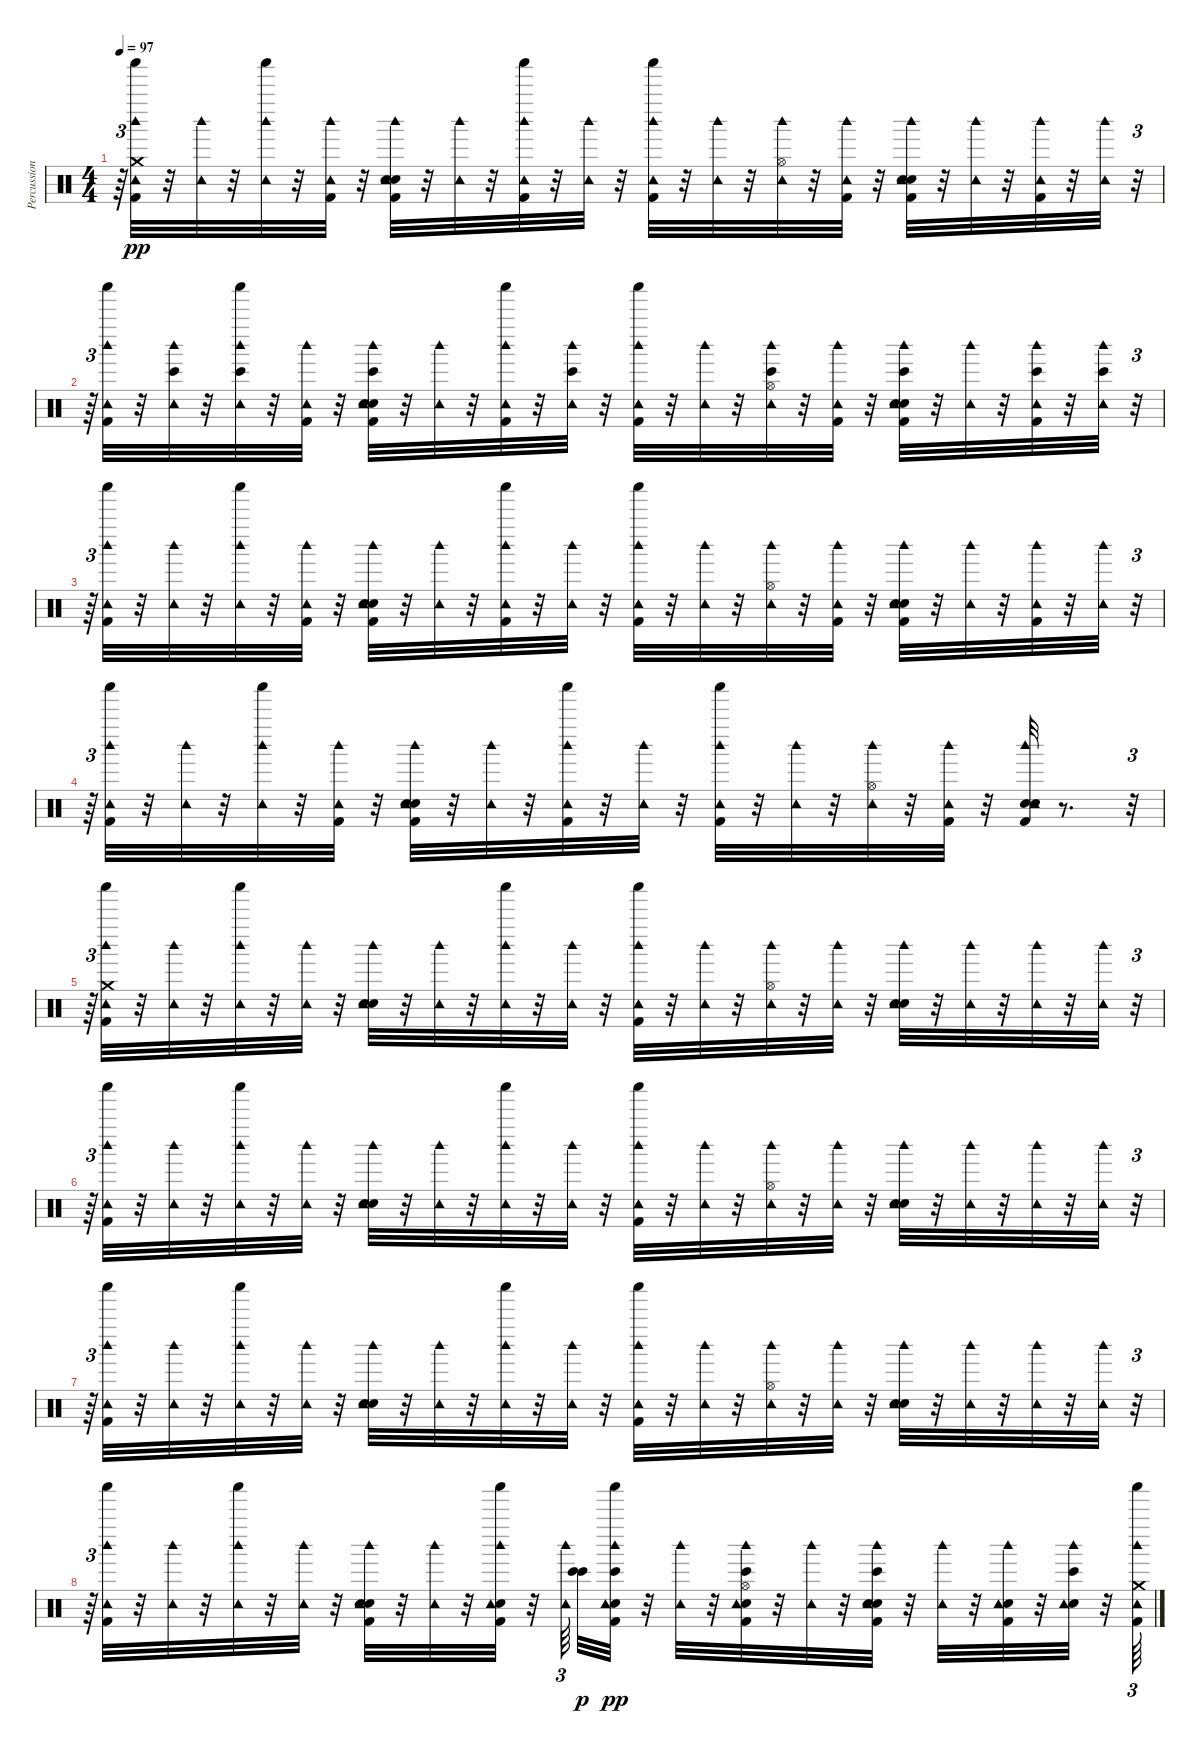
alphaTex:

\track ("Percussion" "Percussion") {instrument percussion}
\staff {score}
\articulation defaults
\ts (4 4)
\tempo 97
\clef neutral
\ks c
r.64{tu (3 2) dy pp} ("Kick (hit) 2" "Tambourine (hit)" "Crash medium (hit)" "Shaker (hit)" "Woodblock high (hit)").32 r.32 ("Tambourine (hit)" "Woodblock high (hit)").32 r.32 ("Tambourine (hit)" "Shaker (hit)" "Woodblock high (hit)").32 r.32 ("Kick (hit) 2" "Tambourine (hit)" "Woodblock high (hit)").32 r.32 ("Kick (hit) 2" "Snare (hit) 2" "Hand Clap (hit)" "Tambourine (hit)" "Woodblock high (hit)").32 r.32 ("Tambourine (hit)" "Woodblock high (hit)").32 r.32 ("Kick (hit) 2" "Tambourine (hit)" "Shaker (hit)" "Woodblock high (hit)").32 r.32 ("Tambourine (hit)" "Woodblock high (hit)").32 r.32 ("Kick (hit) 2" "Tambourine (hit)" "Shaker (hit)" "Woodblock high (hit)").32 r.32 ("Tambourine (hit)" "Woodblock high (hit)").32 r.32 ("Hi-Hat (open)" "Tambourine (hit)" "Woodblock high (hit)").32 r.32 ("Kick (hit) 2" "Tambourine (hit)" "Woodblock high (hit)").32 r.32 ("Kick (hit) 2" "Snare (hit) 2" "Hand Clap (hit)" "Tambourine (hit)" "Woodblock high (hit)").32 r.32 ("Tambourine (hit)" "Woodblock high (hit)").32 r.32 ("Kick (hit) 2" "Tambourine (hit)" "Woodblock high (hit)").32 r.32 ("Tambourine (hit)" "Woodblock high (hit)").32 r.32{tu (3 2)} |
r.64{tu (3 2)} ("Kick (hit) 2" "Tambourine (hit)" "Shaker (hit)" "Woodblock high (hit)").32 r.32 ("Tambourine (hit)" "Bongo High (hit)" "Woodblock high (hit)").32 r.32 ("Tambourine (hit)" "Bongo High (hit)" "Shaker (hit)" "Woodblock high (hit)").32 r.32 ("Kick (hit) 2" "Tambourine (hit)" "Woodblock high (hit)").32 r.32 ("Kick (hit) 2" "Snare (hit) 2" "Hand Clap (hit)" "Tambourine (hit)" "Bongo High (hit)" "Woodblock high (hit)").32 r.32 ("Tambourine (hit)" "Woodblock high (hit)").32 r.32 ("Kick (hit) 2" "Tambourine (hit)" "Shaker (hit)" "Woodblock high (hit)").32 r.32 ("Tambourine (hit)" "Bongo High (hit)" "Woodblock high (hit)").32 r.32 ("Kick (hit) 2" "Tambourine (hit)" "Shaker (hit)" "Woodblock high (hit)").32 r.32 ("Tambourine (hit)" "Woodblock high (hit)").32 r.32 ("Hi-Hat (open)" "Tambourine (hit)" "Bongo High (hit)" "Woodblock high (hit)").32 r.32 ("Kick (hit) 2" "Tambourine (hit)" "Woodblock high (hit)").32 r.32 ("Kick (hit) 2" "Snare (hit) 2" "Hand Clap (hit)" "Tambourine (hit)" "Bongo High (hit)" "Woodblock high (hit)").32 r.32 ("Tambourine (hit)" "Woodblock high (hit)").32 r.32 ("Kick (hit) 2" "Tambourine (hit)" "Bongo High (hit)" "Woodblock high (hit)").32 r.32 ("Tambourine (hit)" "Bongo High (hit)" "Woodblock high (hit)").32 r.32{tu (3 2)} |
r.64{tu (3 2)} ("Kick (hit) 2" "Tambourine (hit)" "Shaker (hit)" "Woodblock high (hit)").32 r.32 ("Tambourine (hit)" "Woodblock high (hit)").32 r.32 ("Tambourine (hit)" "Shaker (hit)" "Woodblock high (hit)").32 r.32 ("Kick (hit) 2" "Tambourine (hit)" "Woodblock high (hit)").32 r.32 ("Kick (hit) 2" "Snare (hit) 2" "Hand Clap (hit)" "Tambourine (hit)" "Woodblock high (hit)").32 r.32 ("Tambourine (hit)" "Woodblock high (hit)").32 r.32 ("Kick (hit) 2" "Tambourine (hit)" "Shaker (hit)" "Woodblock high (hit)").32 r.32 ("Tambourine (hit)" "Woodblock high (hit)").32 r.32 ("Kick (hit) 2" "Tambourine (hit)" "Shaker (hit)" "Woodblock high (hit)").32 r.32 ("Tambourine (hit)" "Woodblock high (hit)").32 r.32 ("Hi-Hat (open)" "Tambourine (hit)" "Woodblock high (hit)").32 r.32 ("Kick (hit) 2" "Tambourine (hit)" "Woodblock high (hit)").32 r.32 ("Kick (hit) 2" "Snare (hit) 2" "Hand Clap (hit)" "Tambourine (hit)" "Woodblock high (hit)").32 r.32 ("Tambourine (hit)" "Woodblock high (hit)").32 r.32 ("Kick (hit) 2" "Tambourine (hit)" "Woodblock high (hit)").32 r.32 ("Tambourine (hit)" "Woodblock high (hit)").32 r.32{tu (3 2)} |
r.64{tu (3 2)} ("Kick (hit) 2" "Tambourine (hit)" "Shaker (hit)" "Woodblock high (hit)").32 r.32 ("Tambourine (hit)" "Woodblock high (hit)").32 r.32 ("Tambourine (hit)" "Shaker (hit)" "Woodblock high (hit)").32 r.32 ("Kick (hit) 2" "Tambourine (hit)" "Woodblock high (hit)").32 r.32 ("Kick (hit) 2" "Snare (hit) 2" "Hand Clap (hit)" "Tambourine (hit)" "Woodblock high (hit)").32 r.32 ("Tambourine (hit)" "Woodblock high (hit)").32 r.32 ("Kick (hit) 2" "Tambourine (hit)" "Shaker (hit)" "Woodblock high (hit)").32 r.32 ("Tambourine (hit)" "Woodblock high (hit)").32 r.32 ("Kick (hit) 2" "Tambourine (hit)" "Shaker (hit)" "Woodblock high (hit)").32 r.32 ("Tambourine (hit)" "Woodblock high (hit)").32 r.32 ("Hi-Hat (open)" "Tambourine (hit)" "Woodblock high (hit)").32 r.32 ("Kick (hit) 2" "Tambourine (hit)" "Woodblock high (hit)").32 r.32 ("Kick (hit) 2" "Snare (hit) 2" "Hand Clap (hit)" "Tambourine (hit)" "Woodblock high (hit)").32 r.8{d} r.32{tu (3 2)} |
r.64{tu (3 2)} ("Kick (hit) 2" "Tambourine (hit)" "Crash medium (hit)" "Shaker (hit)" "Woodblock high (hit)").32 r.32 ("Tambourine (hit)" "Woodblock high (hit)").32 r.32 ("Tambourine (hit)" "Shaker (hit)" "Woodblock high (hit)").32 r.32 ("Tambourine (hit)" "Woodblock high (hit)").32 r.32 ("Snare (hit) 2" "Hand Clap (hit)" "Tambourine (hit)" "Woodblock high (hit)").32 r.32 ("Tambourine (hit)" "Woodblock high (hit)").32 r.32 ("Tambourine (hit)" "Shaker (hit)" "Woodblock high (hit)").32 r.32 ("Tambourine (hit)" "Woodblock high (hit)").32 r.32 ("Kick (hit) 2" "Tambourine (hit)" "Shaker (hit)" "Woodblock high (hit)").32 r.32 ("Tambourine (hit)" "Woodblock high (hit)").32 r.32 ("Hi-Hat (open)" "Tambourine (hit)" "Woodblock high (hit)").32 r.32 ("Tambourine (hit)" "Woodblock high (hit)").32 r.32 ("Snare (hit) 2" "Hand Clap (hit)" "Tambourine (hit)" "Woodblock high (hit)").32 r.32 ("Tambourine (hit)" "Woodblock high (hit)").32 r.32 ("Tambourine (hit)" "Woodblock high (hit)").32 r.32 ("Tambourine (hit)" "Woodblock high (hit)").32 r.32{tu (3 2)} |
r.64{tu (3 2)} ("Kick (hit) 2" "Tambourine (hit)" "Shaker (hit)" "Woodblock high (hit)").32 r.32 ("Tambourine (hit)" "Woodblock high (hit)").32 r.32 ("Tambourine (hit)" "Shaker (hit)" "Woodblock high (hit)").32 r.32 ("Tambourine (hit)" "Woodblock high (hit)").32 r.32 ("Snare (hit) 2" "Hand Clap (hit)" "Tambourine (hit)" "Woodblock high (hit)").32 r.32 ("Tambourine (hit)" "Woodblock high (hit)").32 r.32 ("Tambourine (hit)" "Shaker (hit)" "Woodblock high (hit)").32 r.32 ("Tambourine (hit)" "Woodblock high (hit)").32 r.32 ("Kick (hit) 2" "Tambourine (hit)" "Shaker (hit)" "Woodblock high (hit)").32 r.32 ("Tambourine (hit)" "Woodblock high (hit)").32 r.32 ("Hi-Hat (open)" "Tambourine (hit)" "Woodblock high (hit)").32 r.32 ("Tambourine (hit)" "Woodblock high (hit)").32 r.32 ("Snare (hit) 2" "Hand Clap (hit)" "Tambourine (hit)" "Woodblock high (hit)").32 r.32 ("Tambourine (hit)" "Woodblock high (hit)").32 r.32 ("Tambourine (hit)" "Woodblock high (hit)").32 r.32 ("Tambourine (hit)" "Woodblock high (hit)").32 r.32{tu (3 2)} |
r.64{tu (3 2)} ("Kick (hit) 2" "Tambourine (hit)" "Shaker (hit)" "Woodblock high (hit)").32 r.32 ("Tambourine (hit)" "Woodblock high (hit)").32 r.32 ("Tambourine (hit)" "Shaker (hit)" "Woodblock high (hit)").32 r.32 ("Tambourine (hit)" "Woodblock high (hit)").32 r.32 ("Snare (hit) 2" "Hand Clap (hit)" "Tambourine (hit)" "Woodblock high (hit)").32 r.32 ("Tambourine (hit)" "Woodblock high (hit)").32 r.32 ("Tambourine (hit)" "Shaker (hit)" "Woodblock high (hit)").32 r.32 ("Tambourine (hit)" "Woodblock high (hit)").32 r.32 ("Kick (hit) 2" "Tambourine (hit)" "Shaker (hit)" "Woodblock high (hit)").32 r.32 ("Tambourine (hit)" "Woodblock high (hit)").32 r.32 ("Hi-Hat (open)" "Tambourine (hit)" "Woodblock high (hit)").32 r.32 ("Tambourine (hit)" "Woodblock high (hit)").32 r.32 ("Snare (hit) 2" "Hand Clap (hit)" "Tambourine (hit)" "Woodblock high (hit)").32 r.32 ("Tambourine (hit)" "Woodblock high (hit)").32 r.32 ("Tambourine (hit)" "Woodblock high (hit)").32 r.32 ("Tambourine (hit)" "Woodblock high (hit)").32 r.32{tu (3 2)} |
r.64{tu (3 2)} ("Kick (hit) 2" "Tambourine (hit)" "Shaker (hit)" "Woodblock high (hit)").32 r.32 ("Tambourine (hit)" "Woodblock high (hit)").32 r.32 ("Tambourine (hit)" "Shaker (hit)" "Woodblock high (hit)").32 r.32 ("Tambourine (hit)" "Woodblock high (hit)").32 r.32 ("Kick (hit) 2" "Hand Clap (hit)" "Snare (hit) 2" "Tambourine (hit)" "Woodblock high (hit)").32 r.32 ("Tambourine (hit)" "Woodblock high (hit)").32 r.32 ("Kick (hit) 2" "Snare (hit) 2" "Tambourine (hit)" "Shaker (hit)" "Woodblock high (hit)").32 r.32 ("Tambourine (hit)" "Woodblock high (hit)").64{tu (3 2) beam splitsecondary} ("Bongo High (hit)" "Bongo High (hit)").32{dy p} ("Kick (hit) 2" "Snare (hit) 2" "Tambourine (hit)" "Bongo High (hit)" "Shaker (hit)" "Woodblock high (hit)").32{dy pp} r.32 ("Tambourine (hit)" "Woodblock high (hit)").32 r.32 ("Kick (hit) 2" "Snare (hit) 2" "Hi-Hat (open)" "Tambourine (hit)" "Bongo High (hit)" "Woodblock high (hit)").32 r.32 ("Tambourine (hit)" "Woodblock high (hit)").32 r.32 ("Kick (hit) 2" "Hand Clap (hit)" "Snare (hit) 2" "Tambourine (hit)" "Bongo High (hit)" "Woodblock high (hit)").32 r.32 ("Tambourine (hit)" "Woodblock high (hit)").32 r.32 ("Kick (hit) 2" "Snare (hit) 2" "Tambourine (hit)" "Woodblock high (hit)").32 r.32 ("Snare (hit) 2" "Tambourine (hit)" "Bongo High (hit)" "Woodblock high (hit)").32 r.32 ("Kick (hit) 2" "Tambourine (hit)" "Crash medium (hit)" "Shaker (hit)" "Woodblock high (hit)").64{tu (3 2)}
